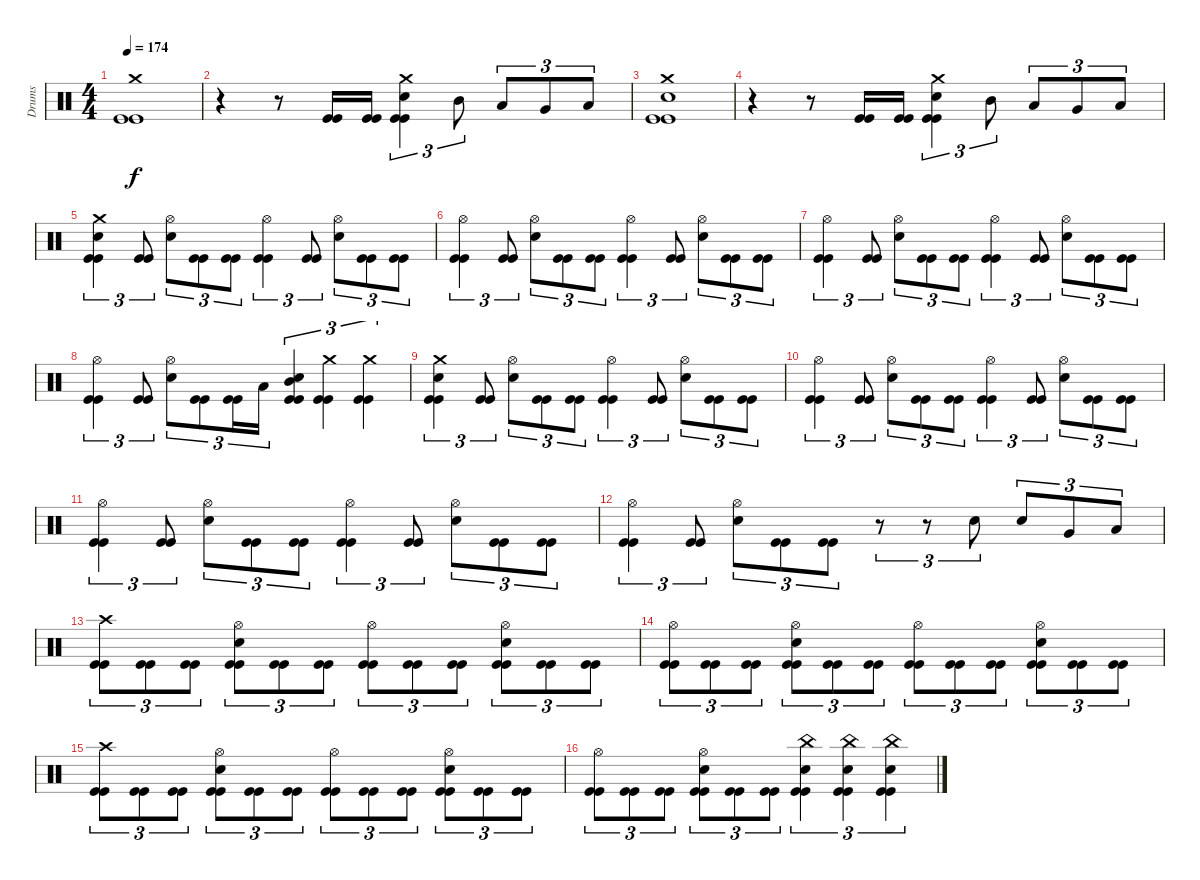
\track ("Drums" "Drums") {instrument percussion}
\staff {score}
\articulation defaults
\ts (4 4)
\tempo 174
\clef neutral
\ks c
("Crash medium (hit)" "Kick (hit)" "Kick (hit)").1{dy f} |
r.4 r.8 ("Kick (hit)" "Kick (hit)").16 ("Kick (hit)" "Kick (hit)").16 ("Kick (hit)" "Kick (hit)" "Snare (hit) 2" "Crash medium (hit)").4{tu (3 2)} "Mid Tom (hit)".8{tu (3 2)} "Low Tom (hit)".8{tu (3 2)} "Very Low Tom (hit)".8{tu (3 2)} "Low Floor Tom (hit)".8{tu (3 2)} |
("Kick (hit)" "Kick (hit)" "Snare (hit) 2" "Crash medium (hit)").1 |
r.4 r.8 ("Kick (hit)" "Kick (hit)").16 ("Kick (hit)" "Kick (hit)").16 ("Kick (hit)" "Kick (hit)" "Snare (hit) 2" "Crash medium (hit)").4{tu (3 2)} "Mid Tom (hit)".8{tu (3 2)} "Low Tom (hit)".8{tu (3 2)} "Very Low Tom (hit)".8{tu (3 2)} "Low Floor Tom (hit)".8{tu (3 2)} |
("Kick (hit)" "Kick (hit)" "Snare (hit) 2" "Crash medium (hit)").4{tu (3 2)} ("Kick (hit)" "Kick (hit)").8{tu (3 2)} ("Snare (hit) 2" "Hi-Hat (open)").8{tu (3 2)} ("Kick (hit)" "Kick (hit)").8{tu (3 2)} ("Kick (hit)" "Kick (hit)").8{tu (3 2)} ("Kick (hit)" "Kick (hit)" "Hi-Hat (open)").4{tu (3 2)} ("Kick (hit)" "Kick (hit)").8{tu (3 2)} ("Snare (hit) 2" "Hi-Hat (open)").8{tu (3 2)} ("Kick (hit)" "Kick (hit)").8{tu (3 2)} ("Kick (hit)" "Kick (hit)").8{tu (3 2)} |
("Kick (hit)" "Kick (hit)" "Hi-Hat (open)").4{tu (3 2)} ("Kick (hit)" "Kick (hit)").8{tu (3 2)} ("Snare (hit) 2" "Hi-Hat (open)").8{tu (3 2)} ("Kick (hit)" "Kick (hit)").8{tu (3 2)} ("Kick (hit)" "Kick (hit)").8{tu (3 2)} ("Kick (hit)" "Kick (hit)" "Hi-Hat (open)").4{tu (3 2)} ("Kick (hit)" "Kick (hit)").8{tu (3 2)} ("Snare (hit) 2" "Hi-Hat (open)").8{tu (3 2)} ("Kick (hit)" "Kick (hit)").8{tu (3 2)} ("Kick (hit)" "Kick (hit)").8{tu (3 2)} |
("Kick (hit)" "Kick (hit)" "Hi-Hat (open)").4{tu (3 2)} ("Kick (hit)" "Kick (hit)").8{tu (3 2)} ("Snare (hit) 2" "Hi-Hat (open)").8{tu (3 2)} ("Kick (hit)" "Kick (hit)").8{tu (3 2)} ("Kick (hit)" "Kick (hit)").8{tu (3 2)} ("Kick (hit)" "Kick (hit)" "Hi-Hat (open)").4{tu (3 2)} ("Kick (hit)" "Kick (hit)").8{tu (3 2)} ("Snare (hit) 2" "Hi-Hat (open)").8{tu (3 2)} ("Kick (hit)" "Kick (hit)").8{tu (3 2)} ("Kick (hit)" "Kick (hit)").8{tu (3 2)} |
("Kick (hit)" "Kick (hit)" "Hi-Hat (open)").4{tu (3 2)} ("Kick (hit)" "Kick (hit)").8{tu (3 2)} ("Snare (hit) 2" "Hi-Hat (open)").8{tu (3 2)} ("Kick (hit)" "Kick (hit)").8{tu (3 2)} ("Kick (hit)" "Kick (hit)").16{tu (3 2)} "Low Floor Tom (hit)".16{tu (3 2)} ("Kick (hit)" "Kick (hit)" "Mid Tom (hit)" "Snare (hit) 2").4{tu (3 2)} ("Kick (hit)" "Kick (hit)" "Crash medium (hit)").4{tu (3 2)} ("Kick (hit)" "Kick (hit)" "Crash medium (hit)").4{tu (3 2)} |
("Kick (hit)" "Kick (hit)" "Snare (hit) 2" "Crash medium (hit)").4{tu (3 2)} ("Kick (hit)" "Kick (hit)").8{tu (3 2)} ("Snare (hit) 2" "Hi-Hat (open)").8{tu (3 2)} ("Kick (hit)" "Kick (hit)").8{tu (3 2)} ("Kick (hit)" "Kick (hit)").8{tu (3 2)} ("Kick (hit)" "Kick (hit)" "Hi-Hat (open)").4{tu (3 2)} ("Kick (hit)" "Kick (hit)").8{tu (3 2)} ("Snare (hit) 2" "Hi-Hat (open)").8{tu (3 2)} ("Kick (hit)" "Kick (hit)").8{tu (3 2)} ("Kick (hit)" "Kick (hit)").8{tu (3 2)} |
("Kick (hit)" "Kick (hit)" "Hi-Hat (open)").4{tu (3 2)} ("Kick (hit)" "Kick (hit)").8{tu (3 2)} ("Snare (hit) 2" "Hi-Hat (open)").8{tu (3 2)} ("Kick (hit)" "Kick (hit)").8{tu (3 2)} ("Kick (hit)" "Kick (hit)").8{tu (3 2)} ("Kick (hit)" "Kick (hit)" "Hi-Hat (open)").4{tu (3 2)} ("Kick (hit)" "Kick (hit)").8{tu (3 2)} ("Snare (hit) 2" "Hi-Hat (open)").8{tu (3 2)} ("Kick (hit)" "Kick (hit)").8{tu (3 2)} ("Kick (hit)" "Kick (hit)").8{tu (3 2)} |
("Kick (hit)" "Kick (hit)" "Hi-Hat (open)").4{tu (3 2)} ("Kick (hit)" "Kick (hit)").8{tu (3 2)} ("Snare (hit) 2" "Hi-Hat (open)").8{tu (3 2)} ("Kick (hit)" "Kick (hit)").8{tu (3 2)} ("Kick (hit)" "Kick (hit)").8{tu (3 2)} ("Kick (hit)" "Kick (hit)" "Hi-Hat (open)").4{tu (3 2)} ("Kick (hit)" "Kick (hit)").8{tu (3 2)} ("Snare (hit) 2" "Hi-Hat (open)").8{tu (3 2)} ("Kick (hit)" "Kick (hit)").8{tu (3 2)} ("Kick (hit)" "Kick (hit)").8{tu (3 2)} |
("Kick (hit)" "Kick (hit)" "Hi-Hat (open)").4{tu (3 2)} ("Kick (hit)" "Kick (hit)").8{tu (3 2)} ("Snare (hit) 2" "Hi-Hat (open)").8{tu (3 2)} ("Kick (hit)" "Kick (hit)").8{tu (3 2)} ("Kick (hit)" "Kick (hit)").8{tu (3 2)} r.8{tu (3 2)} r.8{tu (3 2)} "Snare (hit) 2".8{tu (3 2)} "Snare (hit) 2".8{tu (3 2)} "Very Low Tom (hit)".8{tu (3 2)} "Low Floor Tom (hit)".8{tu (3 2)} |
("Kick (hit)" "Kick (hit)" "Crash high (hit)").8{tu (3 2)} ("Kick (hit)" "Kick (hit)").8{tu (3 2)} ("Kick (hit)" "Kick (hit)").8{tu (3 2)} ("Kick (hit)" "Kick (hit)" "Snare (hit) 2" "Hi-Hat (open)").8{tu (3 2)} ("Kick (hit)" "Kick (hit)").8{tu (3 2)} ("Kick (hit)" "Kick (hit)").8{tu (3 2)} ("Kick (hit)" "Kick (hit)" "Hi-Hat (open)").8{tu (3 2)} ("Kick (hit)" "Kick (hit)").8{tu (3 2)} ("Kick (hit)" "Kick (hit)").8{tu (3 2)} ("Kick (hit)" "Kick (hit)" "Snare (hit) 2" "Hi-Hat (open)").8{tu (3 2)} ("Kick (hit)" "Kick (hit)").8{tu (3 2)} ("Kick (hit)" "Kick (hit)").8{tu (3 2)} |
("Kick (hit)" "Kick (hit)" "Hi-Hat (open)").8{tu (3 2)} ("Kick (hit)" "Kick (hit)").8{tu (3 2)} ("Kick (hit)" "Kick (hit)").8{tu (3 2)} ("Kick (hit)" "Kick (hit)" "Snare (hit) 2" "Hi-Hat (open)").8{tu (3 2)} ("Kick (hit)" "Kick (hit)").8{tu (3 2)} ("Kick (hit)" "Kick (hit)").8{tu (3 2)} ("Kick (hit)" "Kick (hit)" "Hi-Hat (open)").8{tu (3 2)} ("Kick (hit)" "Kick (hit)").8{tu (3 2)} ("Kick (hit)" "Kick (hit)").8{tu (3 2)} ("Kick (hit)" "Kick (hit)" "Snare (hit) 2" "Hi-Hat (open)").8{tu (3 2)} ("Kick (hit)" "Kick (hit)").8{tu (3 2)} ("Kick (hit)" "Kick (hit)").8{tu (3 2)} |
("Kick (hit)" "Kick (hit)" "Crash high (hit)").8{tu (3 2)} ("Kick (hit)" "Kick (hit)").8{tu (3 2)} ("Kick (hit)" "Kick (hit)").8{tu (3 2)} ("Kick (hit)" "Kick (hit)" "Snare (hit) 2" "Hi-Hat (open)").8{tu (3 2)} ("Kick (hit)" "Kick (hit)").8{tu (3 2)} ("Kick (hit)" "Kick (hit)").8{tu (3 2)} ("Kick (hit)" "Kick (hit)" "Hi-Hat (open)").8{tu (3 2)} ("Kick (hit)" "Kick (hit)").8{tu (3 2)} ("Kick (hit)" "Kick (hit)").8{tu (3 2)} ("Kick (hit)" "Kick (hit)" "Snare (hit) 2" "Hi-Hat (open)").8{tu (3 2)} ("Kick (hit)" "Kick (hit)").8{tu (3 2)} ("Kick (hit)" "Kick (hit)").8{tu (3 2)} |
("Kick (hit)" "Kick (hit)" "Hi-Hat (open)").8{tu (3 2)} ("Kick (hit)" "Kick (hit)").8{tu (3 2)} ("Kick (hit)" "Kick (hit)").8{tu (3 2)} ("Kick (hit)" "Kick (hit)" "Snare (hit) 2" "Hi-Hat (open)").8{tu (3 2)} ("Kick (hit)" "Kick (hit)").8{tu (3 2)} ("Kick (hit)" "Kick (hit)").8{tu (3 2)} ("Kick (hit)" "Kick (hit)" "Snare (hit) 2" "China (hit)").4{tu (3 2)} ("Kick (hit)" "Kick (hit)" "Snare (hit) 2" "China (hit)").4{tu (3 2)} ("Kick (hit)" "Kick (hit)" "Snare (hit) 2" "China (hit)").4{tu (3 2)}
